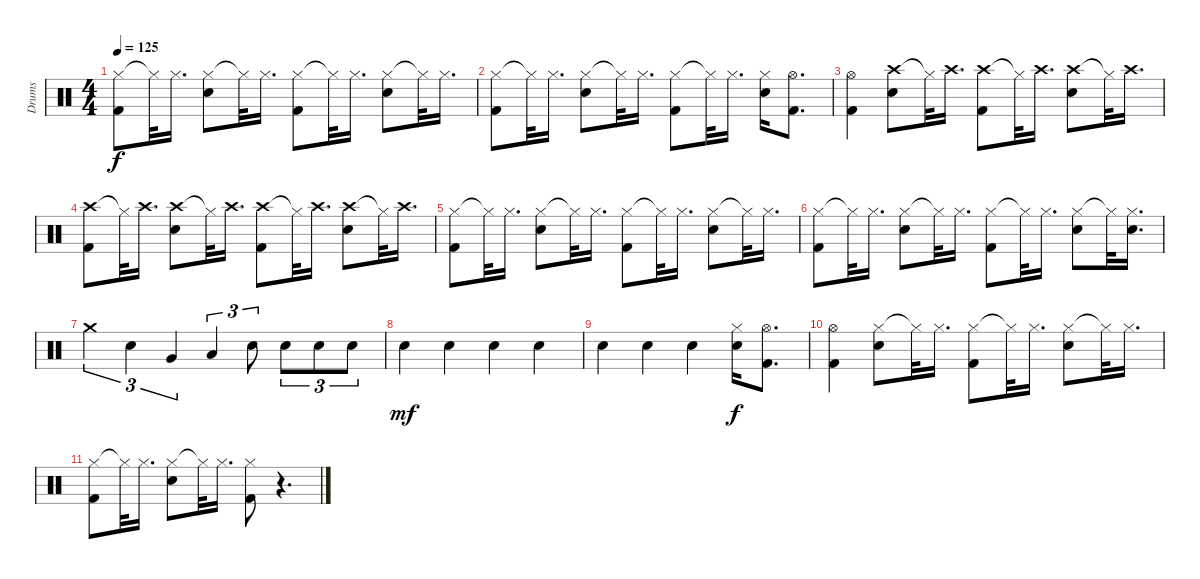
\track ("Drums" "Drums") {instrument percussion}
\staff {score}
\articulation defaults
\ts (4 4)
\tempo 125
\clef neutral
\ks c
("Hi-Hat (closed)" "Kick (hit) 2").8{dy f} "Hi-Hat (closed)"{t}.32 "Hi-Hat (closed)".16{d} ("Hi-Hat (closed)" "Electric Snare (hit)").8 "Hi-Hat (closed)"{t}.32 "Hi-Hat (closed)".16{d} ("Hi-Hat (closed)" "Kick (hit) 2").8 "Hi-Hat (closed)"{t}.32 "Hi-Hat (closed)".16{d} ("Hi-Hat (closed)" "Electric Snare (hit)").8 "Hi-Hat (closed)"{t}.32 "Hi-Hat (closed)".16{d} |
("Hi-Hat (closed)" "Kick (hit) 2").8 "Hi-Hat (closed)"{t}.32 "Hi-Hat (closed)".16{d} ("Hi-Hat (closed)" "Electric Snare (hit)").8 "Hi-Hat (closed)"{t}.32 "Hi-Hat (closed)".16{d} ("Hi-Hat (closed)" "Kick (hit) 2").8 "Hi-Hat (closed)"{t}.32 "Hi-Hat (closed)".16{d} ("Hi-Hat (closed)" "Electric Snare (hit)").16 ("Hi-Hat (open)" "Kick (hit) 2").8{d} |
("Hi-Hat (open)" "Kick (hit) 2").4 ("Crash high (hit)" "Electric Snare (hit)").8 "Hi-Hat (closed)"{t}.32 "Crash high (hit)".16{d} ("Crash high (hit)" "Kick (hit) 2").8 "Hi-Hat (closed)"{t}.32 "Crash high (hit)".16{d} ("Crash high (hit)" "Electric Snare (hit)").8 "Hi-Hat (closed)"{t}.32 "Crash high (hit)".16{d} |
("Crash high (hit)" "Kick (hit) 2").8 "Hi-Hat (closed)"{t}.32 "Crash high (hit)".16{d} ("Crash high (hit)" "Electric Snare (hit)").8 "Hi-Hat (closed)"{t}.32 "Crash high (hit)".16{d} ("Crash high (hit)" "Kick (hit) 2").8 "Hi-Hat (closed)"{t}.32 "Crash high (hit)".16{d} ("Crash high (hit)" "Electric Snare (hit)").8 "Hi-Hat (closed)"{t}.32 "Crash high (hit)".16{d} |
("Hi-Hat (closed)" "Kick (hit) 2").8 "Hi-Hat (closed)"{t}.32 "Hi-Hat (closed)".16{d} ("Hi-Hat (closed)" "Electric Snare (hit)").8 "Hi-Hat (closed)"{t}.32 "Hi-Hat (closed)".16{d} ("Hi-Hat (closed)" "Kick (hit) 2").8 "Hi-Hat (closed)"{t}.32 "Hi-Hat (closed)".16{d} ("Hi-Hat (closed)" "Electric Snare (hit)").8 "Hi-Hat (closed)"{t}.32 "Hi-Hat (closed)".16{d} |
("Hi-Hat (closed)" "Kick (hit) 2").8 "Hi-Hat (closed)"{t}.32 "Hi-Hat (closed)".16{d} ("Hi-Hat (closed)" "Electric Snare (hit)").8 "Hi-Hat (closed)"{t}.32 "Hi-Hat (closed)".16{d} ("Hi-Hat (closed)" "Kick (hit) 2").8 "Hi-Hat (closed)"{t}.32 "Hi-Hat (closed)".16{d} ("Hi-Hat (closed)" "Electric Snare (hit)").8 "Hi-Hat (closed)"{t}.32 ("Hi-Hat (closed)" "Electric Snare (hit)").16{d} |
"Crash medium (hit)".4{tu (3 2)} "Electric Snare (hit)".4{tu (3 2)} "Very Low Tom (hit)".4{tu (3 2)} "Low Floor Tom (hit)".4{tu (3 2)} "Electric Snare (hit)".8{tu (3 2)} "Electric Snare (hit)".8{tu (3 2)} "Electric Snare (hit)".8{tu (3 2)} "Electric Snare (hit)".8{tu (3 2)} |
"Electric Snare (hit)".4{dy mf} "Electric Snare (hit)".4 "Electric Snare (hit)".4 "Electric Snare (hit)".4 |
"Electric Snare (hit)".4 "Electric Snare (hit)".4 "Electric Snare (hit)".4 ("Hi-Hat (closed)" "Electric Snare (hit)").16{dy f} ("Hi-Hat (open)" "Kick (hit) 2").8{d} |
("Hi-Hat (open)" "Kick (hit) 2").4 ("Hi-Hat (closed)" "Electric Snare (hit)").8 "Hi-Hat (closed)"{t}.32 "Hi-Hat (closed)".16{d} ("Hi-Hat (closed)" "Kick (hit) 2").8 "Hi-Hat (closed)"{t}.32 "Hi-Hat (closed)".16{d} ("Hi-Hat (closed)" "Electric Snare (hit)").8 "Hi-Hat (closed)"{t}.32 "Hi-Hat (closed)".16{d} |
("Hi-Hat (closed)" "Kick (hit) 2").8 "Hi-Hat (closed)"{t}.32 "Hi-Hat (closed)".16{d} ("Hi-Hat (closed)" "Electric Snare (hit)").8 "Hi-Hat (closed)"{t}.32 "Hi-Hat (closed)".16{d} ("Hi-Hat (closed)" "Kick (hit) 2").8 r.4{d}
